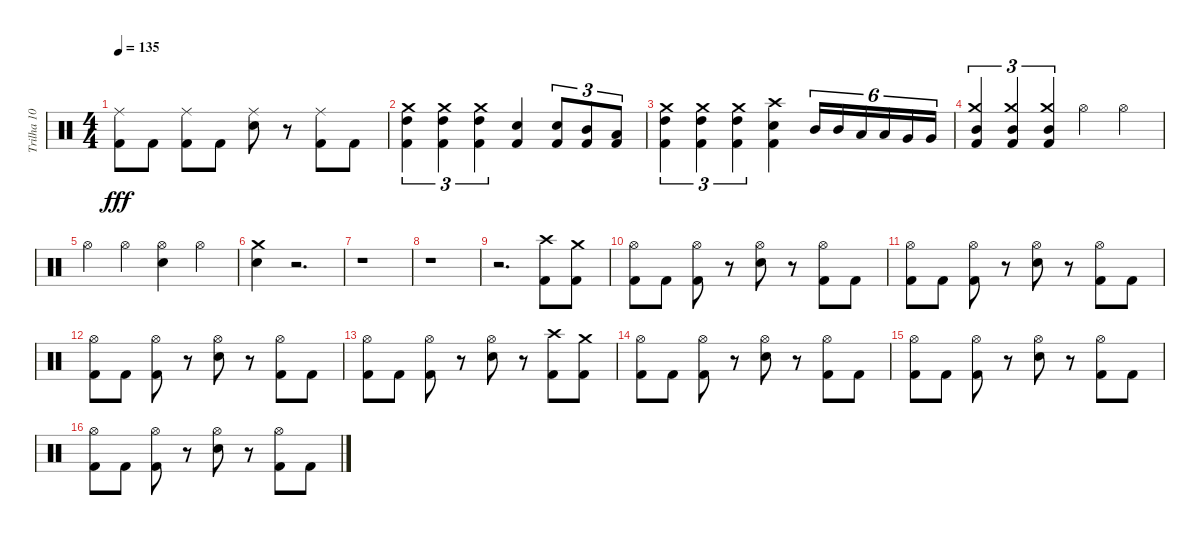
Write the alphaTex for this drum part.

\track ("Trilha 10" "Trilha 10") {instrument percussion}
\staff {score}
\articulation defaults
\ts (4 4)
\tempo 135
\clef neutral
\ks c
("Ride (middle)" "Kick (hit) 2").8{dy fff} "Kick (hit) 2".8 ("Kick (hit) 2" "Ride (middle)").8 "Kick (hit) 2".8 ("Ride (middle)" "Electric Snare (hit)").8 r.8 ("Kick (hit) 2" "Ride (middle)").8 "Kick (hit) 2".8 |
("High Tom (hit)" "Crash medium (hit)" "Kick (hit) 2").4{tu (3 2)} ("High Tom (hit)" "Crash medium (hit)" "Kick (hit) 2").4{tu (3 2)} ("High Tom (hit)" "Crash medium (hit)" "Kick (hit) 2").4{tu (3 2)} ("Kick (hit) 2" "Electric Snare (hit)").4 ("Kick (hit) 2" "Electric Snare (hit)").8{tu (3 2)} ("Kick (hit) 2" "Mid Tom (hit)").8{tu (3 2)} ("Kick (hit) 2" "Low Tom (hit)").8{tu (3 2)} |
("High Tom (hit)" "Crash medium (hit)" "Kick (hit) 2").4{tu (3 2)} ("High Tom (hit)" "Crash medium (hit)" "Kick (hit) 2").4{tu (3 2)} ("High Tom (hit)" "Crash medium (hit)" "Kick (hit) 2").4{tu (3 2)} ("Electric Snare (hit)" "Crash high (hit)" "Kick (hit) 2").4 "Mid Tom (hit)".16{tu (6 4)} "Mid Tom (hit)".16{tu (6 4)} "Low Tom (hit)".16{tu (6 4)} "Low Tom (hit)".16{tu (6 4)} "Very Low Tom (hit)".16{tu (6 4)} "Very Low Tom (hit)".16{tu (6 4)} |
("Crash medium (hit)" "Mid Tom (hit)" "Kick (hit) 2").4{tu (3 2)} ("Crash medium (hit)" "Mid Tom (hit)" "Kick (hit) 2").4{tu (3 2)} ("Crash medium (hit)" "Mid Tom (hit)" "Kick (hit) 2").4{tu (3 2)} "Hi-Hat (open)".4 "Hi-Hat (open)".4 |
"Hi-Hat (open)".4 "Hi-Hat (open)".4 ("Electric Snare (hit)" "Hi-Hat (open)").4 "Hi-Hat (open)".4 |
("Crash medium (hit)" "Electric Snare (hit)").4 r.2{d} |
r.1 |
r.1 |
r.2{d} ("Kick (hit) 2" "Crash high (hit)").8 ("Kick (hit) 2" "Crash medium (hit)").8 |
("Kick (hit) 2" "Hi-Hat (open)").8 "Kick (hit) 2".8 ("Kick (hit) 2" "Hi-Hat (open)").8 r.8 ("Electric Snare (hit)" "Hi-Hat (open)").8 r.8 ("Kick (hit) 2" "Hi-Hat (open)").8 "Kick (hit) 2".8 |
("Kick (hit) 2" "Hi-Hat (open)").8 "Kick (hit) 2".8 ("Kick (hit) 2" "Hi-Hat (open)").8 r.8 ("Electric Snare (hit)" "Hi-Hat (open)").8 r.8 ("Kick (hit) 2" "Hi-Hat (open)").8 "Kick (hit) 2".8 |
("Kick (hit) 2" "Hi-Hat (open)").8 "Kick (hit) 2".8 ("Kick (hit) 2" "Hi-Hat (open)").8 r.8 ("Electric Snare (hit)" "Hi-Hat (open)").8 r.8 ("Kick (hit) 2" "Hi-Hat (open)").8 "Kick (hit) 2".8 |
("Kick (hit) 2" "Hi-Hat (open)").8 "Kick (hit) 2".8 ("Kick (hit) 2" "Hi-Hat (open)").8 r.8 ("Electric Snare (hit)" "Hi-Hat (open)").8 r.8 ("Kick (hit) 2" "Crash high (hit)").8 ("Kick (hit) 2" "Crash medium (hit)").8 |
("Kick (hit) 2" "Hi-Hat (open)").8 "Kick (hit) 2".8 ("Kick (hit) 2" "Hi-Hat (open)").8 r.8 ("Electric Snare (hit)" "Hi-Hat (open)").8 r.8 ("Kick (hit) 2" "Hi-Hat (open)").8 "Kick (hit) 2".8 |
("Kick (hit) 2" "Hi-Hat (open)").8 "Kick (hit) 2".8 ("Kick (hit) 2" "Hi-Hat (open)").8 r.8 ("Electric Snare (hit)" "Hi-Hat (open)").8 r.8 ("Kick (hit) 2" "Hi-Hat (open)").8 "Kick (hit) 2".8 |
("Kick (hit) 2" "Hi-Hat (open)").8 "Kick (hit) 2".8 ("Kick (hit) 2" "Hi-Hat (open)").8 r.8 ("Electric Snare (hit)" "Hi-Hat (open)").8 r.8 ("Kick (hit) 2" "Hi-Hat (open)").8 "Kick (hit) 2".8
